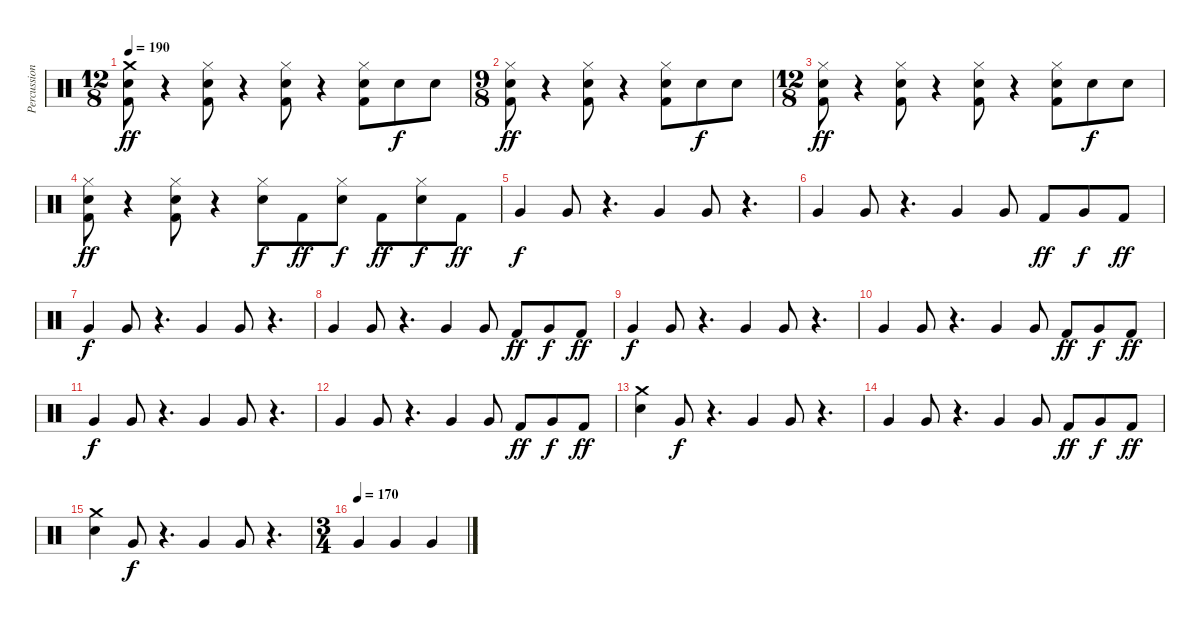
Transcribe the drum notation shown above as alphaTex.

\track ("Percussion" "Percussion") {instrument percussion}
\staff {score}
\articulation defaults
\ts (12 8)
\tempo 190
\clef neutral
\ks c
("Kick (hit) 2" "Snare (hit) 2" "Crash medium (hit)").8{dy ff} r.4 ("Kick (hit) 2" "Snare (hit) 2" "Hi-Hat (closed)").8 r.4 ("Kick (hit) 2" "Snare (hit) 2" "Hi-Hat (closed)").8 r.4 ("Kick (hit) 2" "Snare (hit) 2" "Hi-Hat (closed)").8 "Snare (hit) 2".8{dy f} "Snare (hit) 2".8 |
\ts (9 8)
("Kick (hit) 2" "Snare (hit) 2" "Hi-Hat (closed)").8{dy ff} r.4 ("Kick (hit) 2" "Snare (hit) 2" "Hi-Hat (closed)").8 r.4 ("Kick (hit) 2" "Snare (hit) 2" "Hi-Hat (closed)").8 "Snare (hit) 2".8{dy f} "Snare (hit) 2".8 |
\ts (12 8)
("Kick (hit) 2" "Snare (hit) 2" "Hi-Hat (closed)").8{dy ff} r.4 ("Kick (hit) 2" "Snare (hit) 2" "Hi-Hat (closed)").8 r.4 ("Kick (hit) 2" "Snare (hit) 2" "Hi-Hat (closed)").8 r.4 ("Kick (hit) 2" "Snare (hit) 2" "Hi-Hat (closed)").8 "Snare (hit) 2".8{dy f} "Snare (hit) 2".8 |
("Kick (hit) 2" "Snare (hit) 2" "Hi-Hat (closed)").8{dy ff} r.4 ("Kick (hit) 2" "Snare (hit) 2" "Hi-Hat (closed)").8 r.4 ("Snare (hit) 2" "Hi-Hat (closed)").8{dy f} "Kick (hit) 2".8{dy ff} ("Snare (hit) 2" "Hi-Hat (closed)").8{dy f} "Kick (hit) 2".8{dy ff} ("Snare (hit) 2" "Hi-Hat (closed)").8{dy f} "Kick (hit) 2".8{dy ff} |
"Very Low Tom (hit)".4{dy f} "Very Low Tom (hit)".8 r.4{d} "Very Low Tom (hit)".4 "Very Low Tom (hit)".8 r.4{d} |
"Very Low Tom (hit)".4 "Very Low Tom (hit)".8 r.4{d} "Very Low Tom (hit)".4 "Very Low Tom (hit)".8 "Kick (hit) 2".8{dy ff} "Very Low Tom (hit)".8{dy f} "Kick (hit) 2".8{dy ff} |
"Very Low Tom (hit)".4{dy f} "Very Low Tom (hit)".8 r.4{d} "Very Low Tom (hit)".4 "Very Low Tom (hit)".8 r.4{d} |
"Very Low Tom (hit)".4 "Very Low Tom (hit)".8 r.4{d} "Very Low Tom (hit)".4 "Very Low Tom (hit)".8 "Kick (hit) 2".8{dy ff} "Very Low Tom (hit)".8{dy f} "Kick (hit) 2".8{dy ff} |
"Very Low Tom (hit)".4{dy f} "Very Low Tom (hit)".8 r.4{d} "Very Low Tom (hit)".4 "Very Low Tom (hit)".8 r.4{d} |
"Very Low Tom (hit)".4 "Very Low Tom (hit)".8 r.4{d} "Very Low Tom (hit)".4 "Very Low Tom (hit)".8 "Kick (hit) 2".8{dy ff} "Very Low Tom (hit)".8{dy f} "Kick (hit) 2".8{dy ff} |
"Very Low Tom (hit)".4{dy f} "Very Low Tom (hit)".8 r.4{d} "Very Low Tom (hit)".4 "Very Low Tom (hit)".8 r.4{d} |
"Very Low Tom (hit)".4 "Very Low Tom (hit)".8 r.4{d} "Very Low Tom (hit)".4 "Very Low Tom (hit)".8 "Kick (hit) 2".8{dy ff} "Very Low Tom (hit)".8{dy f} "Kick (hit) 2".8{dy ff} |
("Snare (hit) 2" "Crash medium (hit)").4 "Very Low Tom (hit)".8{dy f} r.4{d} "Very Low Tom (hit)".4 "Very Low Tom (hit)".8 r.4{d} |
"Very Low Tom (hit)".4 "Very Low Tom (hit)".8 r.4{d} "Very Low Tom (hit)".4 "Very Low Tom (hit)".8 "Kick (hit) 2".8{dy ff} "Very Low Tom (hit)".8{dy f} "Kick (hit) 2".8{dy ff} |
("Snare (hit) 2" "Crash medium (hit)").4 "Very Low Tom (hit)".8{dy f} r.4{d} "Very Low Tom (hit)".4 "Very Low Tom (hit)".8 r.4{d} |
\ts (3 4)
\tempo 167
\tempo (170)
"Very Low Tom (hit)".4 "Very Low Tom (hit)".4 "Very Low Tom (hit)".4
